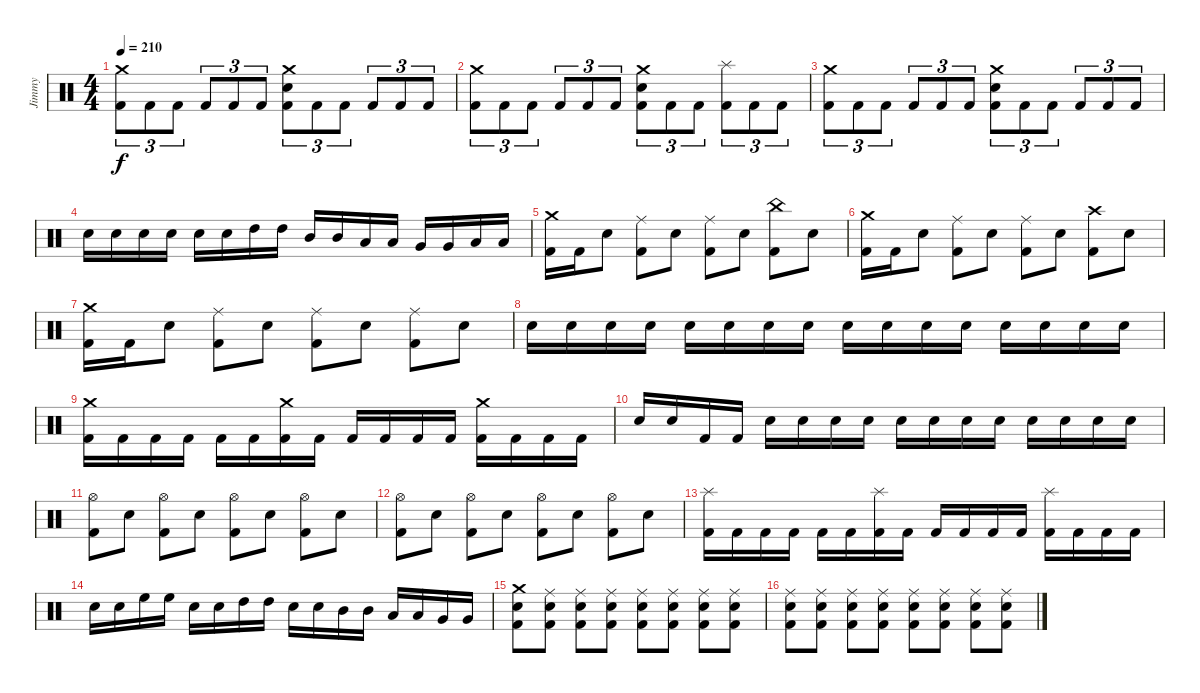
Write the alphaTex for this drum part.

\track ("Jimmy" "Jimmy") {instrument percussion}
\staff {score}
\articulation defaults
\ts (4 4)
\tempo 210
\clef neutral
\ks c
("Crash medium (hit)" "Kick (hit) 2").8{tu (3 2) dy f} "Kick (hit) 2".8{tu (3 2)} "Kick (hit) 2".8{tu (3 2)} "Kick (hit) 2".8{tu (3 2)} "Kick (hit) 2".8{tu (3 2)} "Kick (hit) 2".8{tu (3 2)} ("Crash medium (hit)" "Electric Snare (hit)" "Kick (hit) 2").8{tu (3 2)} "Kick (hit) 2".8{tu (3 2)} "Kick (hit) 2".8{tu (3 2)} "Kick (hit) 2".8{tu (3 2)} "Kick (hit) 2".8{tu (3 2)} "Kick (hit) 2".8{tu (3 2)} |
("Crash medium (hit)" "Kick (hit) 2").8{tu (3 2)} "Kick (hit) 2".8{tu (3 2)} "Kick (hit) 2".8{tu (3 2)} "Kick (hit) 2".8{tu (3 2)} "Kick (hit) 2".8{tu (3 2)} "Kick (hit) 2".8{tu (3 2)} ("Crash medium (hit)" "Electric Snare (hit)" "Kick (hit) 2").8{tu (3 2)} "Kick (hit) 2".8{tu (3 2)} "Kick (hit) 2".8{tu (3 2)} ("Splash (hit)" "Kick (hit) 2").8{tu (3 2)} "Kick (hit) 2".8{tu (3 2)} "Kick (hit) 2".8{tu (3 2)} |
("Crash medium (hit)" "Kick (hit) 2").8{tu (3 2)} "Kick (hit) 2".8{tu (3 2)} "Kick (hit) 2".8{tu (3 2)} "Kick (hit) 2".8{tu (3 2)} "Kick (hit) 2".8{tu (3 2)} "Kick (hit) 2".8{tu (3 2)} ("Crash medium (hit)" "Electric Snare (hit)" "Kick (hit) 2").8{tu (3 2)} "Kick (hit) 2".8{tu (3 2)} "Kick (hit) 2".8{tu (3 2)} "Kick (hit) 2".8{tu (3 2)} "Kick (hit) 2".8{tu (3 2)} "Kick (hit) 2".8{tu (3 2)} |
"Electric Snare (hit)".16 "Electric Snare (hit)".16 "Electric Snare (hit)".16 "Electric Snare (hit)".16 "Electric Snare (hit)".16 "Electric Snare (hit)".16 "High Tom (hit)".16 "High Tom (hit)".16 "Mid Tom (hit)".16 "Mid Tom (hit)".16 "Low Tom (hit)".16 "Low Tom (hit)".16 "Very Low Tom (hit)".16 "Very Low Tom (hit)".16 "Low Floor Tom (hit)".16 "Low Floor Tom (hit)".16 |
("Crash medium (hit)" "Kick (hit) 2").16 "Kick (hit) 2".16 "Electric Snare (hit)".8 ("Ride (middle)" "Kick (hit) 2").8 "Electric Snare (hit)".8 ("Ride (middle)" "Kick (hit) 2").8 "Electric Snare (hit)".8 ("China (hit)" "Kick (hit) 2").8 "Electric Snare (hit)".8 |
("Crash medium (hit)" "Kick (hit) 2").16 "Kick (hit) 2".16 "Electric Snare (hit)".8 ("Ride (middle)" "Kick (hit) 2").8 "Electric Snare (hit)".8 ("Ride (middle)" "Kick (hit) 2").8 "Electric Snare (hit)".8 ("Crash high (hit)" "Kick (hit) 2").8 "Electric Snare (hit)".8 |
("Crash medium (hit)" "Kick (hit) 2").16 "Kick (hit) 2".16 "Electric Snare (hit)".8 ("Ride (middle)" "Kick (hit) 2").8 "Electric Snare (hit)".8 ("Ride (middle)" "Kick (hit) 2").8 "Electric Snare (hit)".8 ("Ride (middle)" "Kick (hit) 2").8 "Electric Snare (hit)".8 |
"Electric Snare (hit)".16 "Electric Snare (hit)".16 "Electric Snare (hit)".16 "Electric Snare (hit)".16 "Electric Snare (hit)".16 "Electric Snare (hit)".16 "Electric Snare (hit)".16 "Electric Snare (hit)".16 "Electric Snare (hit)".16 "Electric Snare (hit)".16 "Electric Snare (hit)".16 "Electric Snare (hit)".16 "Electric Snare (hit)".16 "Electric Snare (hit)".16 "Electric Snare (hit)".16 "Electric Snare (hit)".16 |
("Crash medium (hit)" "Kick (hit) 2").16 "Kick (hit) 2".16 "Kick (hit) 2".16 "Kick (hit) 2".16 "Kick (hit) 2".16 "Kick (hit) 2".16 ("Crash medium (hit)" "Kick (hit) 2").16 "Kick (hit) 2".16 "Kick (hit) 2".16 "Kick (hit) 2".16 "Kick (hit) 2".16 "Kick (hit) 2".16 ("Crash medium (hit)" "Kick (hit) 2").16 "Kick (hit) 2".16 "Kick (hit) 2".16 "Kick (hit) 2".16 |
"Electric Snare (hit)".16 "Electric Snare (hit)".16 "Kick (hit) 2".16 "Kick (hit) 2".16 "Electric Snare (hit)".16 "Electric Snare (hit)".16 "Electric Snare (hit)".16 "Electric Snare (hit)".16 "Electric Snare (hit)".16 "Electric Snare (hit)".16 "Electric Snare (hit)".16 "Electric Snare (hit)".16 "Electric Snare (hit)".16 "Electric Snare (hit)".16 "Electric Snare (hit)".16 "Electric Snare (hit)".16 |
("Hi-Hat (open)" "Kick (hit) 2").8 "Electric Snare (hit)".8 ("Hi-Hat (open)" "Kick (hit) 2").8 "Electric Snare (hit)".8 ("Hi-Hat (open)" "Kick (hit) 2").8 "Electric Snare (hit)".8 ("Hi-Hat (open)" "Kick (hit) 2").8 "Electric Snare (hit)".8 |
("Hi-Hat (open)" "Kick (hit) 2").8 "Electric Snare (hit)".8 ("Hi-Hat (open)" "Kick (hit) 2").8 "Electric Snare (hit)".8 ("Hi-Hat (open)" "Kick (hit) 2").8 "Electric Snare (hit)".8 ("Hi-Hat (open)" "Kick (hit) 2").8 "Electric Snare (hit)".8 |
("Splash (hit)" "Kick (hit) 2").16 "Kick (hit) 2".16 "Kick (hit) 2".16 "Kick (hit) 2".16 "Kick (hit) 2".16 "Kick (hit) 2".16 ("Splash (hit)" "Kick (hit) 2").16 "Kick (hit) 2".16 "Kick (hit) 2".16 "Kick (hit) 2".16 "Kick (hit) 2".16 "Kick (hit) 2".16 ("Splash (hit)" "Kick (hit) 2").16 "Kick (hit) 2".16 "Kick (hit) 2".16 "Kick (hit) 2".16 |
"Electric Snare (hit)".16 "Electric Snare (hit)".16 "High Floor Tom (hit)".16 "High Floor Tom (hit)".16 "Electric Snare (hit)".16 "Electric Snare (hit)".16 "High Tom (hit)".16 "High Tom (hit)".16 "Electric Snare (hit)".16 "Electric Snare (hit)".16 "Mid Tom (hit)".16 "Mid Tom (hit)".16 "Low Tom (hit)".16 "Low Tom (hit)".16 "Very Low Tom (hit)".16 "Very Low Tom (hit)".16 |
("Crash medium (hit)" "Electric Snare (hit)" "Kick (hit) 2").8 ("Ride (middle)" "Electric Snare (hit)" "Kick (hit) 2").8 ("Ride (middle)" "Electric Snare (hit)" "Kick (hit) 2").8 ("Ride (middle)" "Electric Snare (hit)" "Kick (hit) 2").8 ("Ride (middle)" "Electric Snare (hit)" "Kick (hit) 2").8 ("Ride (middle)" "Electric Snare (hit)" "Kick (hit) 2").8 ("Ride (middle)" "Electric Snare (hit)" "Kick (hit) 2").8 ("Ride (middle)" "Electric Snare (hit)" "Kick (hit) 2").8 |
("Ride (middle)" "Electric Snare (hit)" "Kick (hit) 2").8 ("Ride (middle)" "Electric Snare (hit)" "Kick (hit) 2").8 ("Ride (middle)" "Electric Snare (hit)" "Kick (hit) 2").8 ("Ride (middle)" "Electric Snare (hit)" "Kick (hit) 2").8 ("Ride (middle)" "Electric Snare (hit)" "Kick (hit) 2").8 ("Ride (middle)" "Electric Snare (hit)" "Kick (hit) 2").8 ("Ride (middle)" "Electric Snare (hit)" "Kick (hit) 2").8 ("Ride (middle)" "Electric Snare (hit)" "Kick (hit) 2").8
